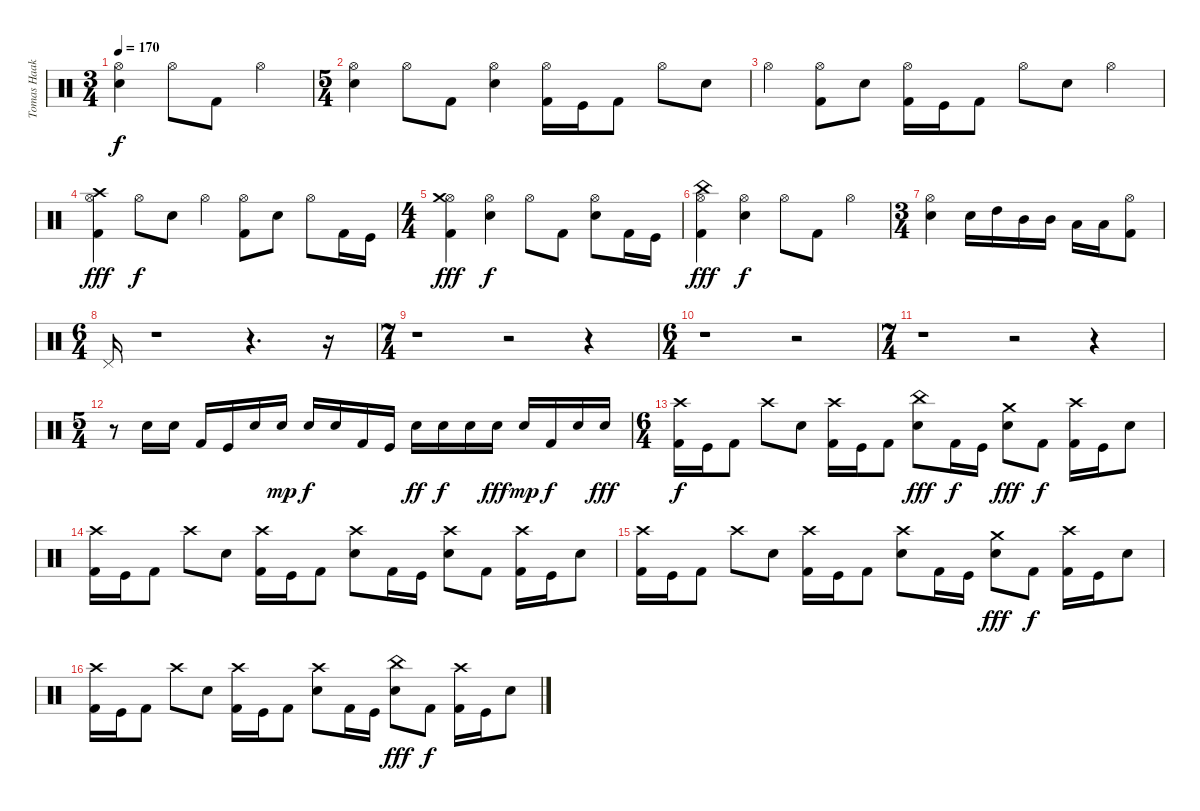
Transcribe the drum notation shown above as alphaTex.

\track ("Tomas Haake" "Tomas Haak") {instrument percussion}
\staff {score}
\articulation defaults
\ts (3 4)
\tempo 170
\clef neutral
\ks c
("Snare (hit) 2" "Hi-Hat (open)").4{dy f} "Hi-Hat (open)".8 "Kick (hit) 2".8 "Hi-Hat (open)".4 |
\ts (5 4)
("Snare (hit) 2" "Hi-Hat (open)").4 "Hi-Hat (open)".8 "Kick (hit) 2".8 ("Snare (hit) 2" "Hi-Hat (open)").4 ("Kick (hit) 2" "Hi-Hat (open)").16 "Kick (hit)".16 "Kick (hit) 2".8 "Hi-Hat (open)".8 "Snare (hit) 2".8 |
"Hi-Hat (open)".4 ("Kick (hit) 2" "Hi-Hat (open)").8 "Snare (hit) 2".8 ("Kick (hit) 2" "Hi-Hat (open)").16 "Kick (hit)".16 "Kick (hit) 2".8 "Hi-Hat (open)".8 "Snare (hit) 2".8 "Hi-Hat (open)".4 |
("Kick (hit) 2" "Hi-Hat (open)" "Crash high (hit)").4{dy fff} "Hi-Hat (open)".8{dy f} "Snare (hit) 2".8 "Hi-Hat (open)".4 ("Kick (hit) 2" "Hi-Hat (open)").8 "Snare (hit) 2".8 "Hi-Hat (open)".8 "Kick (hit) 2".16 "Kick (hit)".16 |
\ts (4 4)
("Kick (hit) 2" "Hi-Hat (open)" "Crash medium (hit)").4{dy fff} ("Snare (hit) 2" "Hi-Hat (open)").4{dy f} "Hi-Hat (open)".8 "Kick (hit) 2".8 ("Snare (hit) 2" "Hi-Hat (open)").8 "Kick (hit) 2".16 "Kick (hit)".16 |
("Kick (hit) 2" "Hi-Hat (open)" "China (hit)").4{dy fff} ("Snare (hit) 2" "Hi-Hat (open)").4{dy f} "Hi-Hat (open)".8 "Kick (hit) 2".8 "Hi-Hat (open)".4 |
\ts (3 4)
("Snare (hit) 2" "Hi-Hat (open)").4 "Snare (hit) 2".16 "High Tom (hit)".16 "Mid Tom (hit)".16 "Mid Tom (hit)".16 "Low Tom (hit)".16 "Low Tom (hit)".16 ("Kick (hit) 2" "Hi-Hat (open)").8 |
\ts (6 4)
"Pedal Hi-Hat (hit)".16 r.1 r.4{d} r.16 |
\ts (7 4)
r.1 r.2 r.4 |
\ts (6 4)
r.1 r.2 |
\ts (7 4)
r.1 r.2 r.4 |
\ts (5 4)
r.8 "Snare (hit) 2".16 "Snare (hit) 2".16 "Kick (hit) 2".16 "Kick (hit)".16 "Snare (hit) 2".16 "Snare (hit) 2".16{dy mp} "Snare (hit) 2".16{dy f} "Snare (hit) 2".16 "Kick (hit) 2".16 "Kick (hit)".16 "Snare (hit) 2".16{dy ff} "Snare (hit) 2".16{dy f} "Snare (hit) 2".16 "Snare (hit) 2".16{dy fff} "Snare (hit) 2".16{dy mp} "Kick (hit) 2".16{dy f} "Snare (hit) 2".16 "Snare (hit) 2".16{dy fff} |
\ts (6 4)
("Kick (hit) 2" "Crash high (hit)").16{dy f} "Kick (hit)".16 "Kick (hit) 2".8 "Crash high (hit)".8 "Snare (hit) 2".8 ("Kick (hit) 2" "Crash high (hit)").16 "Kick (hit)".16 "Kick (hit) 2".8 ("Snare (hit) 2" "China (hit)").8{dy fff} "Kick (hit) 2".16{dy f} "Kick (hit)".16 ("Snare (hit) 2" "Crash medium (hit)").8{dy fff} "Kick (hit) 2".8{dy f} ("Kick (hit) 2" "Crash high (hit)").16 "Kick (hit)".16 "Snare (hit) 2".8 |
("Kick (hit) 2" "Crash high (hit)").16 "Kick (hit)".16 "Kick (hit) 2".8 "Crash high (hit)".8 "Snare (hit) 2".8 ("Kick (hit) 2" "Crash high (hit)").16 "Kick (hit)".16 "Kick (hit) 2".8 ("Snare (hit) 2" "Crash high (hit)").8 "Kick (hit) 2".16 "Kick (hit)".16 ("Snare (hit) 2" "Crash high (hit)").8 "Kick (hit) 2".8 ("Kick (hit) 2" "Crash high (hit)").16 "Kick (hit)".16 "Snare (hit) 2".8 |
("Kick (hit) 2" "Crash high (hit)").16 "Kick (hit)".16 "Kick (hit) 2".8 "Crash high (hit)".8 "Snare (hit) 2".8 ("Kick (hit) 2" "Crash high (hit)").16 "Kick (hit)".16 "Kick (hit) 2".8 ("Snare (hit) 2" "Crash high (hit)").8 "Kick (hit) 2".16 "Kick (hit)".16 ("Snare (hit) 2" "Crash medium (hit)").8{dy fff} "Kick (hit) 2".8{dy f} ("Kick (hit) 2" "Crash high (hit)").16 "Kick (hit)".16 "Snare (hit) 2".8 |
("Kick (hit) 2" "Crash high (hit)").16 "Kick (hit)".16 "Kick (hit) 2".8 "Crash high (hit)".8 "Snare (hit) 2".8 ("Kick (hit) 2" "Crash high (hit)").16 "Kick (hit)".16 "Kick (hit) 2".8 ("Snare (hit) 2" "Crash high (hit)").8 "Kick (hit) 2".16 "Kick (hit)".16 ("Snare (hit) 2" "China (hit)").8{dy fff} "Kick (hit) 2".8{dy f} ("Kick (hit) 2" "Crash high (hit)").16 "Kick (hit)".16 "Snare (hit) 2".8
